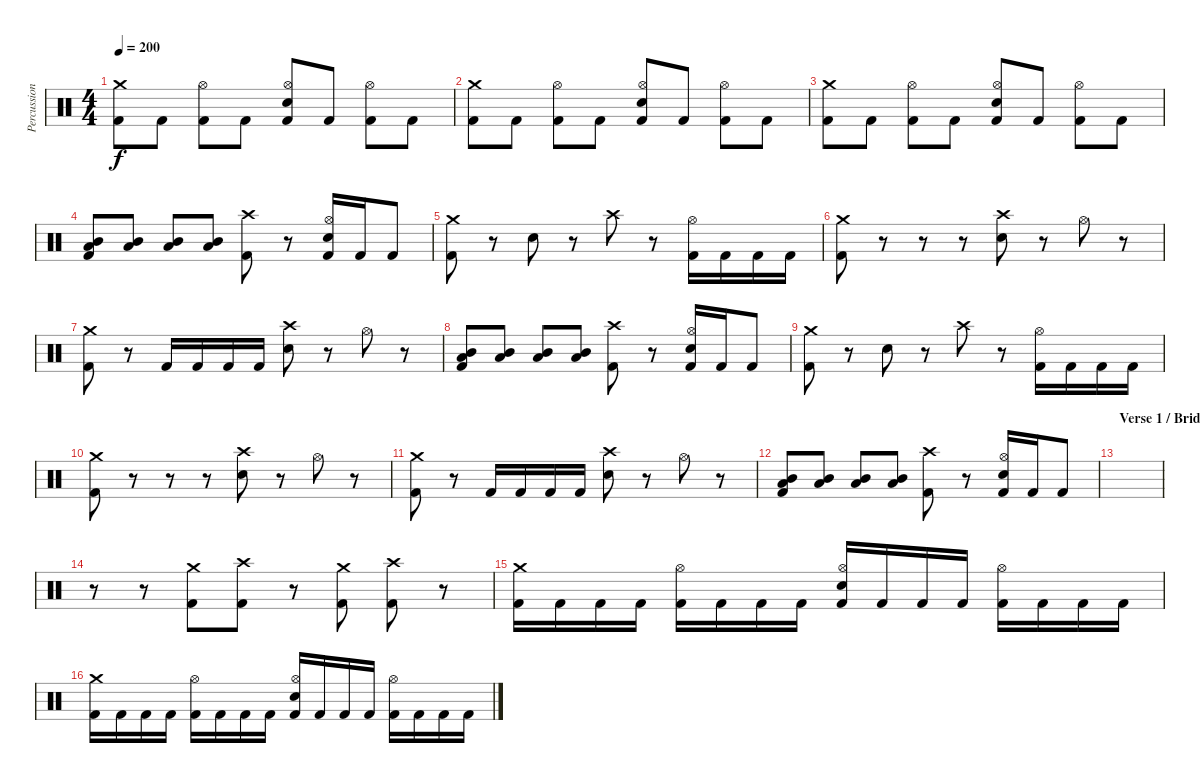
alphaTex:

\track ("Percussions" "Percussion") {instrument percussion}
\staff {score}
\articulation defaults
\ts (4 4)
\tempo 200
\clef neutral
\ks c
("Crash medium (hit)" "Kick (hit) 2").8{dy f} "Kick (hit) 2".8 ("Hi-Hat (open)" "Kick (hit) 2").8 "Kick (hit) 2".8 ("Hi-Hat (open)" "Electric Snare (hit)" "Kick (hit) 2").8 "Kick (hit) 2".8 ("Hi-Hat (open)" "Kick (hit) 2").8 "Kick (hit) 2".8 |
("Crash medium (hit)" "Kick (hit) 2").8 "Kick (hit) 2".8 ("Hi-Hat (open)" "Kick (hit) 2").8 "Kick (hit) 2".8 ("Hi-Hat (open)" "Electric Snare (hit)" "Kick (hit) 2").8 "Kick (hit) 2".8 ("Hi-Hat (open)" "Kick (hit) 2").8 "Kick (hit) 2".8 |
("Crash medium (hit)" "Kick (hit) 2").8 "Kick (hit) 2".8 ("Hi-Hat (open)" "Kick (hit) 2").8 "Kick (hit) 2".8 ("Hi-Hat (open)" "Electric Snare (hit)" "Kick (hit) 2").8 "Kick (hit) 2".8 ("Hi-Hat (open)" "Kick (hit) 2").8 "Kick (hit) 2".8 |
("Mid Tom (hit)" "Low Tom (hit)" "Kick (hit) 2").8 ("Mid Tom (hit)" "Low Tom (hit)").8 ("Mid Tom (hit)" "Low Tom (hit)").8 ("Mid Tom (hit)" "Low Tom (hit)").8 ("Crash high (hit)" "Kick (hit) 2").8 r.8 ("Hi-Hat (open)" "Electric Snare (hit)" "Kick (hit) 2").16 "Kick (hit) 2".16 "Kick (hit) 2".8 |
("Crash medium (hit)" "Kick (hit) 2").8 r.8 "Electric Snare (hit)".8 r.8 "Crash high (hit)".8 r.8 ("Hi-Hat (open)" "Kick (hit) 2").16 "Kick (hit) 2".16 "Kick (hit) 2".16 "Kick (hit) 2".16 |
("Crash medium (hit)" "Kick (hit) 2").8 r.8 r.8 r.8 ("Crash high (hit)" "Electric Snare (hit)").8 r.8 "Hi-Hat (open)".8 r.8 |
("Crash medium (hit)" "Kick (hit) 2").8 r.8 "Kick (hit) 2".16 "Kick (hit) 2".16 "Kick (hit) 2".16 "Kick (hit) 2".16 ("Crash high (hit)" "Electric Snare (hit)").8 r.8 "Hi-Hat (open)".8 r.8 |
("Mid Tom (hit)" "Low Tom (hit)" "Kick (hit) 2").8 ("Mid Tom (hit)" "Low Tom (hit)").8 ("Mid Tom (hit)" "Low Tom (hit)").8 ("Mid Tom (hit)" "Low Tom (hit)").8 ("Crash high (hit)" "Kick (hit) 2").8 r.8 ("Hi-Hat (open)" "Electric Snare (hit)" "Kick (hit) 2").16 "Kick (hit) 2".16 "Kick (hit) 2".8 |
("Crash medium (hit)" "Kick (hit) 2").8 r.8 "Electric Snare (hit)".8 r.8 "Crash high (hit)".8 r.8 ("Hi-Hat (open)" "Kick (hit) 2").16 "Kick (hit) 2".16 "Kick (hit) 2".16 "Kick (hit) 2".16 |
("Crash medium (hit)" "Kick (hit) 2").8 r.8 r.8 r.8 ("Crash high (hit)" "Electric Snare (hit)").8 r.8 "Hi-Hat (open)".8 r.8 |
("Crash medium (hit)" "Kick (hit) 2").8 r.8 "Kick (hit) 2".16 "Kick (hit) 2".16 "Kick (hit) 2".16 "Kick (hit) 2".16 ("Crash high (hit)" "Electric Snare (hit)").8 r.8 "Hi-Hat (open)".8 r.8 |
("Mid Tom (hit)" "Low Tom (hit)" "Kick (hit) 2").8 ("Mid Tom (hit)" "Low Tom (hit)").8 ("Mid Tom (hit)" "Low Tom (hit)").8 ("Mid Tom (hit)" "Low Tom (hit)").8 ("Crash high (hit)" "Kick (hit) 2").8 r.8 ("Hi-Hat (open)" "Electric Snare (hit)" "Kick (hit) 2").16 "Kick (hit) 2".16 "Kick (hit) 2".8 |
\section ("" "Verse 1 / Bridge")
|
r.8 r.8 ("Crash medium (hit)" "Kick (hit) 2").8 ("Crash high (hit)" "Kick (hit) 2").8 r.8 ("Crash medium (hit)" "Kick (hit) 2").8 ("Crash high (hit)" "Kick (hit) 2").8 r.8 |
("Crash medium (hit)" "Kick (hit) 2").16 "Kick (hit) 2".16 "Kick (hit) 2".16 "Kick (hit) 2".16 ("Hi-Hat (open)" "Kick (hit) 2").16 "Kick (hit) 2".16 "Kick (hit) 2".16 "Kick (hit) 2".16 ("Hi-Hat (open)" "Electric Snare (hit)" "Kick (hit) 2").16 "Kick (hit) 2".16 "Kick (hit) 2".16 "Kick (hit) 2".16 ("Hi-Hat (open)" "Kick (hit) 2").16 "Kick (hit) 2".16 "Kick (hit) 2".16 "Kick (hit) 2".16 |
("Crash medium (hit)" "Kick (hit) 2").16 "Kick (hit) 2".16 "Kick (hit) 2".16 "Kick (hit) 2".16 ("Hi-Hat (open)" "Kick (hit) 2").16 "Kick (hit) 2".16 "Kick (hit) 2".16 "Kick (hit) 2".16 ("Hi-Hat (open)" "Electric Snare (hit)" "Kick (hit) 2").16 "Kick (hit) 2".16 "Kick (hit) 2".16 "Kick (hit) 2".16 ("Hi-Hat (open)" "Kick (hit) 2").16 "Kick (hit) 2".16 "Kick (hit) 2".16 "Kick (hit) 2".16
